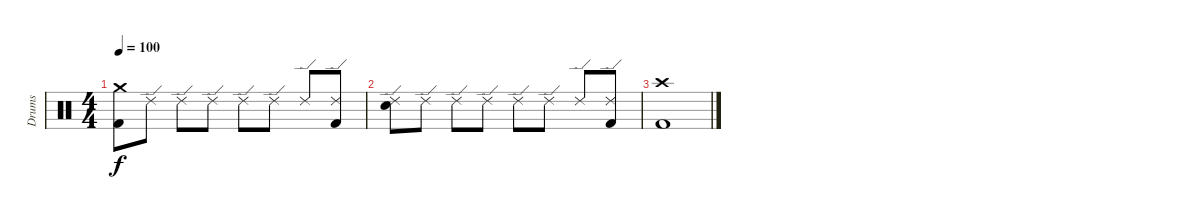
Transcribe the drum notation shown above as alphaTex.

\track ("Drums" "Drums") {instrument percussion}
\staff {score}
\articulation defaults
\ts (4 4)
\tempo 100
\clef neutral
\ks c
("Kick (hit) 2" "Crash medium (hit)").8{dy f} "Ride (edge) 2".8 "Ride (edge) 2".8 "Ride (edge) 2".8 "Ride (edge) 2".8 "Ride (edge) 2".8 "Ride (edge) 2".8 ("Kick (hit) 2" "Ride (edge) 2").8 |
("Snare (hit) 2" "Ride (edge) 2").8 "Ride (edge) 2".8 "Ride (edge) 2".8 "Ride (edge) 2".8 "Ride (edge) 2".8 "Ride (edge) 2".8 "Ride (edge) 2".8 ("Kick (hit) 2" "Ride (edge) 2").8 |
("Kick (hit) 2" "Crash high (hit)").1
